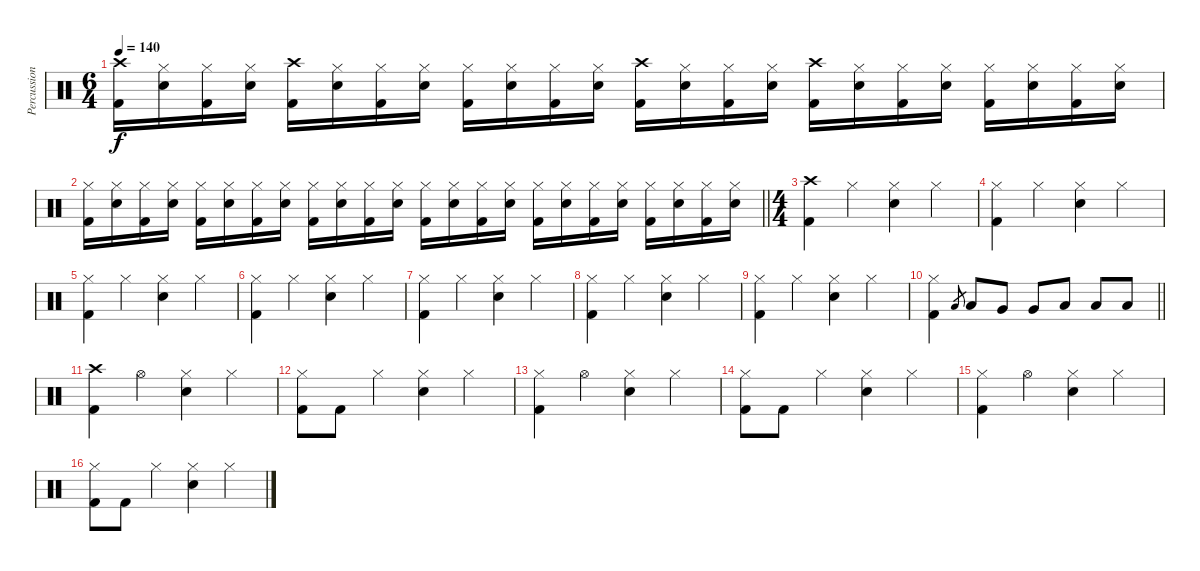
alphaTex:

\track ("Percussions" "Percussion") {instrument percussion}
\staff {score}
\articulation defaults
\ts (6 4)
\tempo 140
\clef neutral
\ks c
("Crash high (hit)" "Kick (hit) 2").16{dy f} ("Hi-Hat (closed)" "Electric Snare (hit)").16 ("Hi-Hat (closed)" "Kick (hit) 2").16 ("Hi-Hat (closed)" "Electric Snare (hit)").16 ("Crash high (hit)" "Kick (hit) 2").16 ("Hi-Hat (closed)" "Electric Snare (hit)").16 ("Hi-Hat (closed)" "Kick (hit) 2").16 ("Hi-Hat (closed)" "Electric Snare (hit)").16 ("Hi-Hat (closed)" "Kick (hit) 2").16 ("Hi-Hat (closed)" "Electric Snare (hit)").16 ("Hi-Hat (closed)" "Kick (hit) 2").16 ("Hi-Hat (closed)" "Electric Snare (hit)").16 ("Crash high (hit)" "Kick (hit) 2").16 ("Hi-Hat (closed)" "Electric Snare (hit)").16 ("Hi-Hat (closed)" "Kick (hit) 2").16 ("Hi-Hat (closed)" "Electric Snare (hit)").16 ("Crash high (hit)" "Kick (hit) 2").16 ("Hi-Hat (closed)" "Electric Snare (hit)").16 ("Hi-Hat (closed)" "Kick (hit) 2").16 ("Hi-Hat (closed)" "Electric Snare (hit)").16 ("Hi-Hat (closed)" "Kick (hit) 2").16 ("Hi-Hat (closed)" "Electric Snare (hit)").16 ("Hi-Hat (closed)" "Kick (hit) 2").16 ("Hi-Hat (closed)" "Electric Snare (hit)").16 |
\barLineRight lightlight
("Hi-Hat (closed)" "Kick (hit) 2").16 ("Hi-Hat (closed)" "Electric Snare (hit)").16 ("Hi-Hat (closed)" "Kick (hit) 2").16 ("Hi-Hat (closed)" "Electric Snare (hit)").16 ("Hi-Hat (closed)" "Kick (hit) 2").16 ("Hi-Hat (closed)" "Electric Snare (hit)").16 ("Hi-Hat (closed)" "Kick (hit) 2").16 ("Hi-Hat (closed)" "Electric Snare (hit)").16 ("Hi-Hat (closed)" "Kick (hit) 2").16 ("Hi-Hat (closed)" "Electric Snare (hit)").16 ("Hi-Hat (closed)" "Kick (hit) 2").16 ("Hi-Hat (closed)" "Electric Snare (hit)").16 ("Hi-Hat (closed)" "Kick (hit) 2").16 ("Hi-Hat (closed)" "Electric Snare (hit)").16 ("Hi-Hat (closed)" "Kick (hit) 2").16 ("Hi-Hat (closed)" "Electric Snare (hit)").16 ("Hi-Hat (closed)" "Kick (hit) 2").16 ("Hi-Hat (closed)" "Electric Snare (hit)").16 ("Hi-Hat (closed)" "Kick (hit) 2").16 ("Hi-Hat (closed)" "Electric Snare (hit)").16 ("Hi-Hat (closed)" "Kick (hit) 2").16 ("Hi-Hat (closed)" "Electric Snare (hit)").16 ("Hi-Hat (closed)" "Kick (hit) 2").16 ("Hi-Hat (closed)" "Electric Snare (hit)").16 |
\ts (4 4)
("Crash high (hit)" "Kick (hit) 2").4 "Hi-Hat (closed)".4 ("Hi-Hat (closed)" "Electric Snare (hit)").4 "Hi-Hat (closed)".4 |
("Hi-Hat (closed)" "Kick (hit) 2").4 "Hi-Hat (closed)".4 ("Hi-Hat (closed)" "Electric Snare (hit)").4 "Hi-Hat (closed)".4 |
("Hi-Hat (closed)" "Kick (hit) 2").4 "Hi-Hat (closed)".4 ("Hi-Hat (closed)" "Electric Snare (hit)").4 "Hi-Hat (closed)".4 |
("Hi-Hat (closed)" "Kick (hit) 2").4 "Hi-Hat (closed)".4 ("Hi-Hat (closed)" "Electric Snare (hit)").4 "Hi-Hat (closed)".4 |
("Hi-Hat (closed)" "Kick (hit) 2").4 "Hi-Hat (closed)".4 ("Hi-Hat (closed)" "Electric Snare (hit)").4 "Hi-Hat (closed)".4 |
("Hi-Hat (closed)" "Kick (hit) 2").4 "Hi-Hat (closed)".4 ("Hi-Hat (closed)" "Electric Snare (hit)").4 "Hi-Hat (closed)".4 |
("Hi-Hat (closed)" "Kick (hit) 2").4 "Hi-Hat (closed)".4 ("Hi-Hat (closed)" "Electric Snare (hit)").4 "Hi-Hat (closed)".4 |
\barLineRight lightlight
("Hi-Hat (closed)" "Kick (hit) 2").4 "Low Tom (hit)".8{gr} "Low Tom (hit)".8 "Very Low Tom (hit)".8 "Very Low Tom (hit)".8 "Low Floor Tom (hit)".8 "Low Floor Tom (hit)".8 "Low Floor Tom (hit)".8 |
("Crash high (hit)" "Kick (hit) 2").4 "Hi-Hat (open)".4 ("Hi-Hat (closed)" "Electric Snare (hit)").4 "Hi-Hat (closed)".4 |
("Hi-Hat (closed)" "Kick (hit) 2").8 "Kick (hit) 2".8 "Hi-Hat (closed)".4 ("Hi-Hat (closed)" "Electric Snare (hit)").4 "Hi-Hat (closed)".4 |
("Hi-Hat (closed)" "Kick (hit) 2").4 "Hi-Hat (open)".4 ("Hi-Hat (closed)" "Electric Snare (hit)").4 "Hi-Hat (closed)".4 |
("Hi-Hat (closed)" "Kick (hit) 2").8 "Kick (hit) 2".8 "Hi-Hat (closed)".4 ("Hi-Hat (closed)" "Electric Snare (hit)").4 "Hi-Hat (closed)".4 |
("Hi-Hat (closed)" "Kick (hit) 2").4 "Hi-Hat (open)".4 ("Hi-Hat (closed)" "Electric Snare (hit)").4 "Hi-Hat (closed)".4 |
("Hi-Hat (closed)" "Kick (hit) 2").8 "Kick (hit) 2".8 "Hi-Hat (closed)".4 ("Hi-Hat (closed)" "Electric Snare (hit)").4 "Hi-Hat (closed)".4
